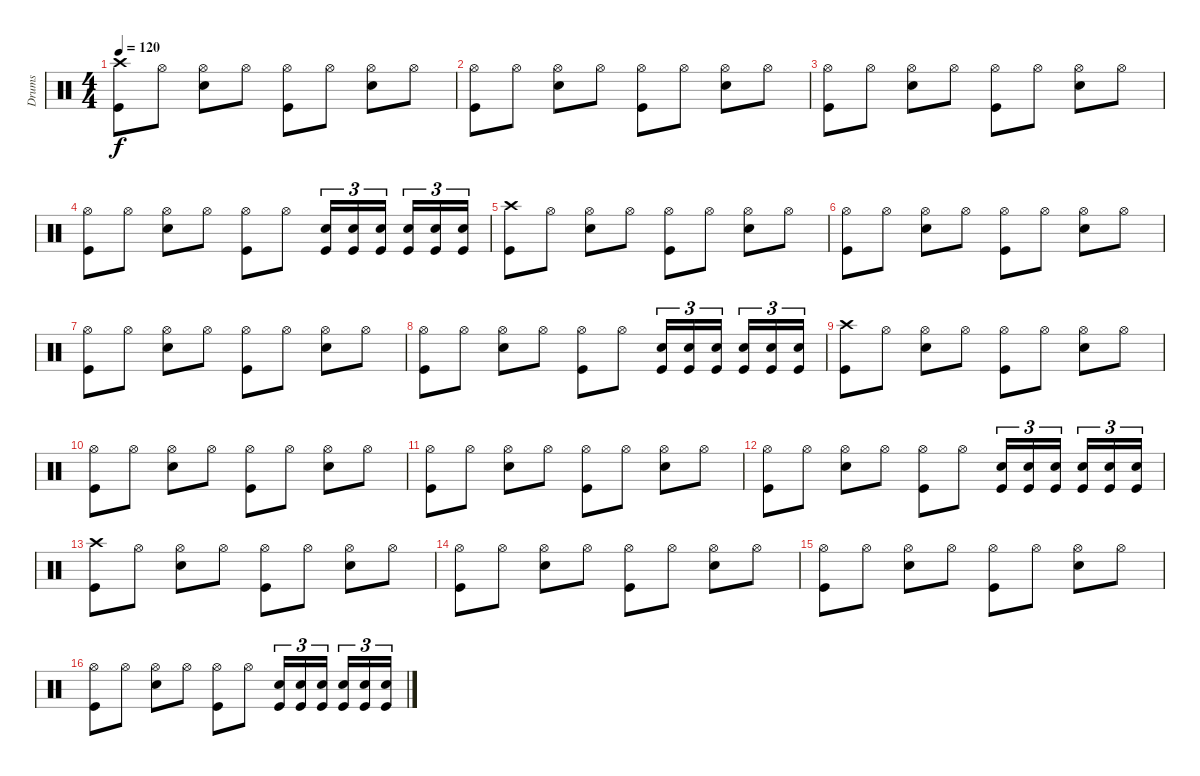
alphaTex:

\track ("Drums" "Drums") {instrument percussion}
\staff {score}
\articulation defaults
\ts (4 4)
\tempo 120
\clef neutral
\ks c
("Crash high (hit)" "Kick (hit)").8{dy f} "Hi-Hat (open)".8 ("Hi-Hat (open)" "Snare (hit) 2").8 "Hi-Hat (open)".8 ("Hi-Hat (open)" "Kick (hit)").8 "Hi-Hat (open)".8 ("Hi-Hat (open)" "Snare (hit) 2").8 "Hi-Hat (open)".8 |
("Hi-Hat (open)" "Kick (hit)").8 "Hi-Hat (open)".8 ("Hi-Hat (open)" "Snare (hit) 2").8 "Hi-Hat (open)".8 ("Hi-Hat (open)" "Kick (hit)").8 "Hi-Hat (open)".8 ("Hi-Hat (open)" "Snare (hit) 2").8 "Hi-Hat (open)".8 |
("Hi-Hat (open)" "Kick (hit)").8 "Hi-Hat (open)".8 ("Hi-Hat (open)" "Snare (hit) 2").8 "Hi-Hat (open)".8 ("Hi-Hat (open)" "Kick (hit)").8 "Hi-Hat (open)".8 ("Hi-Hat (open)" "Snare (hit) 2").8 "Hi-Hat (open)".8 |
("Hi-Hat (open)" "Kick (hit)").8 "Hi-Hat (open)".8 ("Hi-Hat (open)" "Snare (hit) 2").8 "Hi-Hat (open)".8 ("Hi-Hat (open)" "Kick (hit)").8 "Hi-Hat (open)".8 ("Snare (hit) 2" "Kick (hit)").16{tu (3 2)} ("Snare (hit) 2" "Kick (hit)").16{tu (3 2)} ("Snare (hit) 2" "Kick (hit)").16{tu (3 2)} ("Snare (hit) 2" "Kick (hit)").16{tu (3 2)} ("Snare (hit) 2" "Kick (hit)").16{tu (3 2)} ("Snare (hit) 2" "Kick (hit)").16{tu (3 2)} |
("Crash high (hit)" "Kick (hit)").8 "Hi-Hat (open)".8 ("Hi-Hat (open)" "Snare (hit) 2").8 "Hi-Hat (open)".8 ("Hi-Hat (open)" "Kick (hit)").8 "Hi-Hat (open)".8 ("Hi-Hat (open)" "Snare (hit) 2").8 "Hi-Hat (open)".8 |
("Hi-Hat (open)" "Kick (hit)").8 "Hi-Hat (open)".8 ("Hi-Hat (open)" "Snare (hit) 2").8 "Hi-Hat (open)".8 ("Hi-Hat (open)" "Kick (hit)").8 "Hi-Hat (open)".8 ("Hi-Hat (open)" "Snare (hit) 2").8 "Hi-Hat (open)".8 |
("Hi-Hat (open)" "Kick (hit)").8 "Hi-Hat (open)".8 ("Hi-Hat (open)" "Snare (hit) 2").8 "Hi-Hat (open)".8 ("Hi-Hat (open)" "Kick (hit)").8 "Hi-Hat (open)".8 ("Hi-Hat (open)" "Snare (hit) 2").8 "Hi-Hat (open)".8 |
("Hi-Hat (open)" "Kick (hit)").8 "Hi-Hat (open)".8 ("Hi-Hat (open)" "Snare (hit) 2").8 "Hi-Hat (open)".8 ("Hi-Hat (open)" "Kick (hit)").8 "Hi-Hat (open)".8 ("Snare (hit) 2" "Kick (hit)").16{tu (3 2)} ("Snare (hit) 2" "Kick (hit)").16{tu (3 2)} ("Snare (hit) 2" "Kick (hit)").16{tu (3 2)} ("Snare (hit) 2" "Kick (hit)").16{tu (3 2)} ("Snare (hit) 2" "Kick (hit)").16{tu (3 2)} ("Snare (hit) 2" "Kick (hit)").16{tu (3 2)} |
("Crash high (hit)" "Kick (hit)").8 "Hi-Hat (open)".8 ("Hi-Hat (open)" "Snare (hit) 2").8 "Hi-Hat (open)".8 ("Hi-Hat (open)" "Kick (hit)").8 "Hi-Hat (open)".8 ("Hi-Hat (open)" "Snare (hit) 2").8 "Hi-Hat (open)".8 |
("Hi-Hat (open)" "Kick (hit)").8 "Hi-Hat (open)".8 ("Hi-Hat (open)" "Snare (hit) 2").8 "Hi-Hat (open)".8 ("Hi-Hat (open)" "Kick (hit)").8 "Hi-Hat (open)".8 ("Hi-Hat (open)" "Snare (hit) 2").8 "Hi-Hat (open)".8 |
("Hi-Hat (open)" "Kick (hit)").8 "Hi-Hat (open)".8 ("Hi-Hat (open)" "Snare (hit) 2").8 "Hi-Hat (open)".8 ("Hi-Hat (open)" "Kick (hit)").8 "Hi-Hat (open)".8 ("Hi-Hat (open)" "Snare (hit) 2").8 "Hi-Hat (open)".8 |
("Hi-Hat (open)" "Kick (hit)").8 "Hi-Hat (open)".8 ("Hi-Hat (open)" "Snare (hit) 2").8 "Hi-Hat (open)".8 ("Hi-Hat (open)" "Kick (hit)").8 "Hi-Hat (open)".8 ("Snare (hit) 2" "Kick (hit)").16{tu (3 2)} ("Snare (hit) 2" "Kick (hit)").16{tu (3 2)} ("Snare (hit) 2" "Kick (hit)").16{tu (3 2)} ("Snare (hit) 2" "Kick (hit)").16{tu (3 2)} ("Snare (hit) 2" "Kick (hit)").16{tu (3 2)} ("Snare (hit) 2" "Kick (hit)").16{tu (3 2)} |
("Crash high (hit)" "Kick (hit)").8 "Hi-Hat (open)".8 ("Hi-Hat (open)" "Snare (hit) 2").8 "Hi-Hat (open)".8 ("Hi-Hat (open)" "Kick (hit)").8 "Hi-Hat (open)".8 ("Hi-Hat (open)" "Snare (hit) 2").8 "Hi-Hat (open)".8 |
("Hi-Hat (open)" "Kick (hit)").8 "Hi-Hat (open)".8 ("Hi-Hat (open)" "Snare (hit) 2").8 "Hi-Hat (open)".8 ("Hi-Hat (open)" "Kick (hit)").8 "Hi-Hat (open)".8 ("Hi-Hat (open)" "Snare (hit) 2").8 "Hi-Hat (open)".8 |
("Hi-Hat (open)" "Kick (hit)").8 "Hi-Hat (open)".8 ("Hi-Hat (open)" "Snare (hit) 2").8 "Hi-Hat (open)".8 ("Hi-Hat (open)" "Kick (hit)").8 "Hi-Hat (open)".8 ("Hi-Hat (open)" "Snare (hit) 2").8 "Hi-Hat (open)".8 |
("Hi-Hat (open)" "Kick (hit)").8 "Hi-Hat (open)".8 ("Hi-Hat (open)" "Snare (hit) 2").8 "Hi-Hat (open)".8 ("Hi-Hat (open)" "Kick (hit)").8 "Hi-Hat (open)".8 ("Snare (hit) 2" "Kick (hit)").16{tu (3 2)} ("Snare (hit) 2" "Kick (hit)").16{tu (3 2)} ("Snare (hit) 2" "Kick (hit)").16{tu (3 2)} ("Snare (hit) 2" "Kick (hit)").16{tu (3 2)} ("Snare (hit) 2" "Kick (hit)").16{tu (3 2)} ("Snare (hit) 2" "Kick (hit)").16{tu (3 2)}
